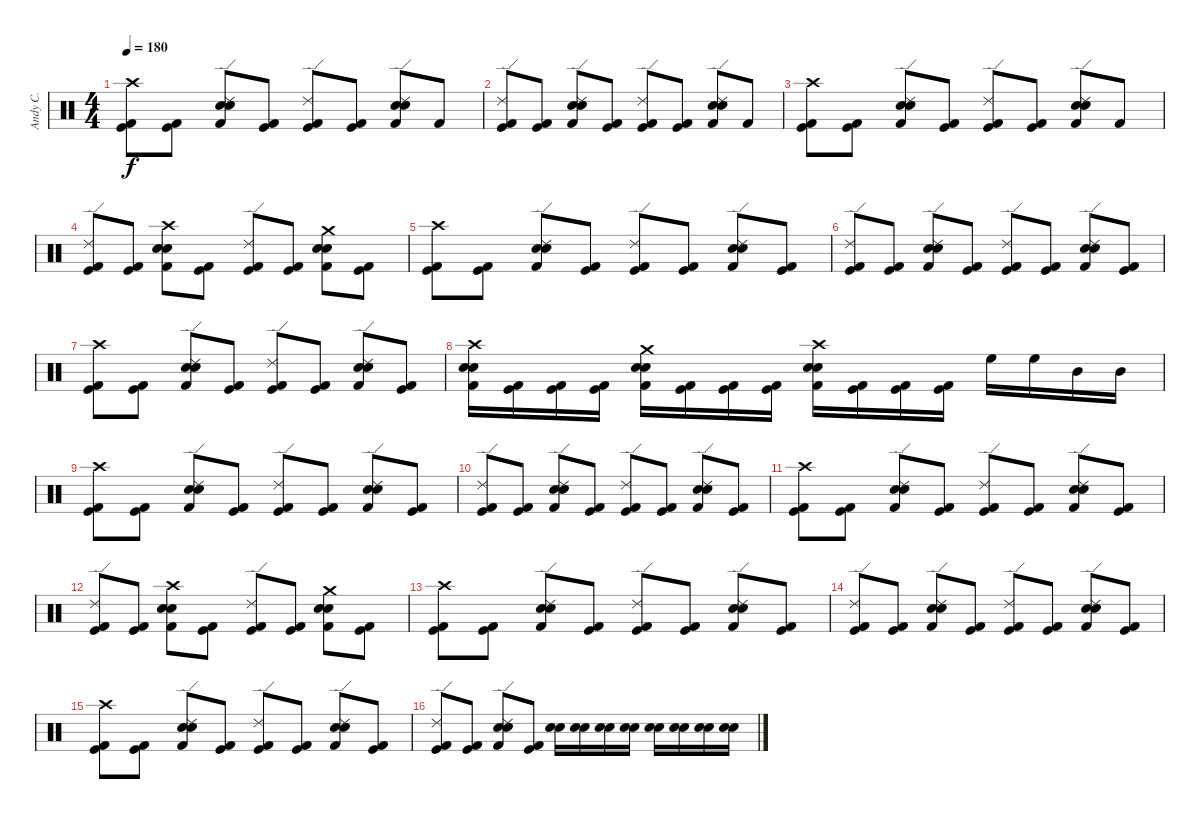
\track ("Andy C." "Andy C.") {instrument percussion}
\staff {score}
\articulation defaults
\ts (4 4)
\tempo 180
\clef neutral
\ks c
("Crash high (hit)" "Kick (hit)" "Kick (hit) 2").8{dy f} ("Kick (hit)" "Kick (hit) 2").8 ("Ride (edge) 2" "Electric Snare (hit)" "Snare (hit) 2" "Kick (hit) 2").8 ("Kick (hit)" "Kick (hit) 2").8 ("Ride (edge) 2" "Kick (hit)" "Kick (hit) 2").8 ("Kick (hit)" "Kick (hit) 2").8 ("Ride (edge) 2" "Electric Snare (hit)" "Snare (hit) 2" "Kick (hit) 2").8 "Kick (hit) 2".8 |
("Ride (edge) 2" "Kick (hit)" "Kick (hit) 2").8 ("Kick (hit)" "Kick (hit) 2").8 ("Ride (edge) 2" "Electric Snare (hit)" "Snare (hit) 2" "Kick (hit) 2").8 ("Kick (hit)" "Kick (hit) 2").8 ("Ride (edge) 2" "Kick (hit)" "Kick (hit) 2").8 ("Kick (hit)" "Kick (hit) 2").8 ("Ride (edge) 2" "Electric Snare (hit)" "Snare (hit) 2" "Kick (hit) 2").8 "Kick (hit) 2".8 |
("Crash high (hit)" "Kick (hit)" "Kick (hit) 2").8 ("Kick (hit)" "Kick (hit) 2").8 ("Ride (edge) 2" "Electric Snare (hit)" "Snare (hit) 2" "Kick (hit) 2").8 ("Kick (hit)" "Kick (hit) 2").8 ("Ride (edge) 2" "Kick (hit)" "Kick (hit) 2").8 ("Kick (hit)" "Kick (hit) 2").8 ("Ride (edge) 2" "Electric Snare (hit)" "Snare (hit) 2" "Kick (hit) 2").8 "Kick (hit) 2".8 |
("Ride (edge) 2" "Kick (hit)" "Kick (hit) 2").8 ("Kick (hit)" "Kick (hit) 2").8 ("Crash high (hit)" "Snare (hit) 2" "Kick (hit) 2" "Electric Snare (hit)").8 ("Kick (hit)" "Kick (hit) 2").8 ("Ride (edge) 2" "Kick (hit)" "Kick (hit) 2").8 ("Kick (hit)" "Kick (hit) 2").8 ("Crash medium (hit)" "Snare (hit) 2" "Kick (hit) 2" "Electric Snare (hit)").8 ("Kick (hit)" "Kick (hit) 2").8 |
("Crash high (hit)" "Kick (hit)" "Kick (hit) 2").8 ("Kick (hit)" "Kick (hit) 2").8 ("Ride (edge) 2" "Snare (hit) 2" "Kick (hit) 2" "Electric Snare (hit)").8 ("Kick (hit)" "Kick (hit) 2").8 ("Ride (edge) 2" "Kick (hit)" "Kick (hit) 2").8 ("Kick (hit)" "Kick (hit) 2").8 ("Ride (edge) 2" "Snare (hit) 2" "Kick (hit) 2" "Electric Snare (hit)").8 ("Kick (hit)" "Kick (hit) 2").8 |
("Ride (edge) 2" "Kick (hit)" "Kick (hit) 2").8 ("Kick (hit)" "Kick (hit) 2").8 ("Ride (edge) 2" "Snare (hit) 2" "Kick (hit) 2" "Electric Snare (hit)").8 ("Kick (hit)" "Kick (hit) 2").8 ("Ride (edge) 2" "Kick (hit)" "Kick (hit) 2").8 ("Kick (hit)" "Kick (hit) 2").8 ("Ride (edge) 2" "Snare (hit) 2" "Kick (hit) 2" "Electric Snare (hit)").8 ("Kick (hit)" "Kick (hit) 2").8 |
("Crash high (hit)" "Kick (hit)" "Kick (hit) 2").8 ("Kick (hit)" "Kick (hit) 2").8 ("Ride (edge) 2" "Snare (hit) 2" "Kick (hit) 2" "Electric Snare (hit)").8 ("Kick (hit)" "Kick (hit) 2").8 ("Ride (edge) 2" "Kick (hit)" "Kick (hit) 2").8 ("Kick (hit)" "Kick (hit) 2").8 ("Ride (edge) 2" "Snare (hit) 2" "Kick (hit) 2" "Electric Snare (hit)").8 ("Kick (hit)" "Kick (hit) 2").8 |
("Crash high (hit)" "Kick (hit) 2" "Snare (hit) 2" "Electric Snare (hit)").16 ("Kick (hit)" "Kick (hit) 2").16 ("Kick (hit)" "Kick (hit) 2").16 ("Kick (hit)" "Kick (hit) 2").16 ("Crash medium (hit)" "Snare (hit) 2" "Kick (hit) 2" "Electric Snare (hit)").16 ("Kick (hit)" "Kick (hit) 2").16 ("Kick (hit)" "Kick (hit) 2").16 ("Kick (hit)" "Kick (hit) 2").16 ("Crash high (hit)" "Snare (hit) 2" "Kick (hit) 2" "Electric Snare (hit)").16 ("Kick (hit)" "Kick (hit) 2").16 ("Kick (hit)" "Kick (hit) 2").16 ("Kick (hit)" "Kick (hit) 2").16 "High Floor Tom (hit)".16 "High Floor Tom (hit)".16 "Mid Tom (hit)".16 "Mid Tom (hit)".16 |
("Crash high (hit)" "Kick (hit)" "Kick (hit) 2").8 ("Kick (hit)" "Kick (hit) 2").8 ("Ride (edge) 2" "Snare (hit) 2" "Kick (hit) 2" "Electric Snare (hit)").8 ("Kick (hit)" "Kick (hit) 2").8 ("Ride (edge) 2" "Kick (hit)" "Kick (hit) 2").8 ("Kick (hit)" "Kick (hit) 2").8 ("Ride (edge) 2" "Snare (hit) 2" "Kick (hit) 2" "Electric Snare (hit)").8 ("Kick (hit)" "Kick (hit) 2").8 |
("Ride (edge) 2" "Kick (hit)" "Kick (hit) 2").8 ("Kick (hit)" "Kick (hit) 2").8 ("Ride (edge) 2" "Snare (hit) 2" "Kick (hit) 2" "Electric Snare (hit)").8 ("Kick (hit)" "Kick (hit) 2").8 ("Ride (edge) 2" "Kick (hit)" "Kick (hit) 2").8 ("Kick (hit)" "Kick (hit) 2").8 ("Ride (edge) 2" "Snare (hit) 2" "Kick (hit) 2" "Electric Snare (hit)").8 ("Kick (hit)" "Kick (hit) 2").8 |
("Crash high (hit)" "Kick (hit)" "Kick (hit) 2").8 ("Kick (hit)" "Kick (hit) 2").8 ("Ride (edge) 2" "Snare (hit) 2" "Kick (hit) 2" "Electric Snare (hit)").8 ("Kick (hit)" "Kick (hit) 2").8 ("Ride (edge) 2" "Kick (hit)" "Kick (hit) 2").8 ("Kick (hit)" "Kick (hit) 2").8 ("Ride (edge) 2" "Snare (hit) 2" "Kick (hit) 2" "Electric Snare (hit)").8 ("Kick (hit)" "Kick (hit) 2").8 |
("Ride (edge) 2" "Kick (hit)" "Kick (hit) 2").8 ("Kick (hit)" "Kick (hit) 2").8 ("Crash high (hit)" "Snare (hit) 2" "Kick (hit) 2" "Electric Snare (hit)").8 ("Kick (hit)" "Kick (hit) 2").8 ("Ride (edge) 2" "Kick (hit)" "Kick (hit) 2").8 ("Kick (hit)" "Kick (hit) 2").8 ("Crash medium (hit)" "Snare (hit) 2" "Kick (hit) 2" "Electric Snare (hit)").8 ("Kick (hit)" "Kick (hit) 2").8 |
("Crash high (hit)" "Kick (hit)" "Kick (hit) 2").8 ("Kick (hit)" "Kick (hit) 2").8 ("Ride (edge) 2" "Snare (hit) 2" "Kick (hit) 2" "Electric Snare (hit)").8 ("Kick (hit)" "Kick (hit) 2").8 ("Ride (edge) 2" "Kick (hit)" "Kick (hit) 2").8 ("Kick (hit)" "Kick (hit) 2").8 ("Ride (edge) 2" "Snare (hit) 2" "Kick (hit) 2" "Electric Snare (hit)").8 ("Kick (hit)" "Kick (hit) 2").8 |
("Ride (edge) 2" "Kick (hit)" "Kick (hit) 2").8 ("Kick (hit)" "Kick (hit) 2").8 ("Ride (edge) 2" "Snare (hit) 2" "Kick (hit) 2" "Electric Snare (hit)").8 ("Kick (hit)" "Kick (hit) 2").8 ("Ride (edge) 2" "Kick (hit)" "Kick (hit) 2").8 ("Kick (hit)" "Kick (hit) 2").8 ("Ride (edge) 2" "Snare (hit) 2" "Kick (hit) 2" "Electric Snare (hit)").8 ("Kick (hit)" "Kick (hit) 2").8 |
("Crash high (hit)" "Kick (hit)" "Kick (hit) 2").8 ("Kick (hit)" "Kick (hit) 2").8 ("Ride (edge) 2" "Snare (hit) 2" "Kick (hit) 2" "Electric Snare (hit)").8 ("Kick (hit)" "Kick (hit) 2").8 ("Ride (edge) 2" "Kick (hit)" "Kick (hit) 2").8 ("Kick (hit)" "Kick (hit) 2").8 ("Ride (edge) 2" "Snare (hit) 2" "Kick (hit) 2" "Electric Snare (hit)").8 ("Kick (hit)" "Kick (hit) 2").8 |
("Ride (edge) 2" "Kick (hit)" "Kick (hit) 2").8 ("Kick (hit)" "Kick (hit) 2").8 ("Ride (edge) 2" "Kick (hit) 2" "Snare (hit) 2" "Electric Snare (hit)").8 ("Kick (hit)" "Kick (hit) 2").8 ("Snare (hit) 2" "Electric Snare (hit)").16 ("Snare (hit) 2" "Electric Snare (hit)").16 ("Snare (hit) 2" "Electric Snare (hit)").16 ("Snare (hit) 2" "Electric Snare (hit)").16 ("Snare (hit) 2" "Electric Snare (hit)").16 ("Snare (hit) 2" "Electric Snare (hit)").16 ("Snare (hit) 2" "Electric Snare (hit)").16 ("Snare (hit) 2" "Electric Snare (hit)").16
